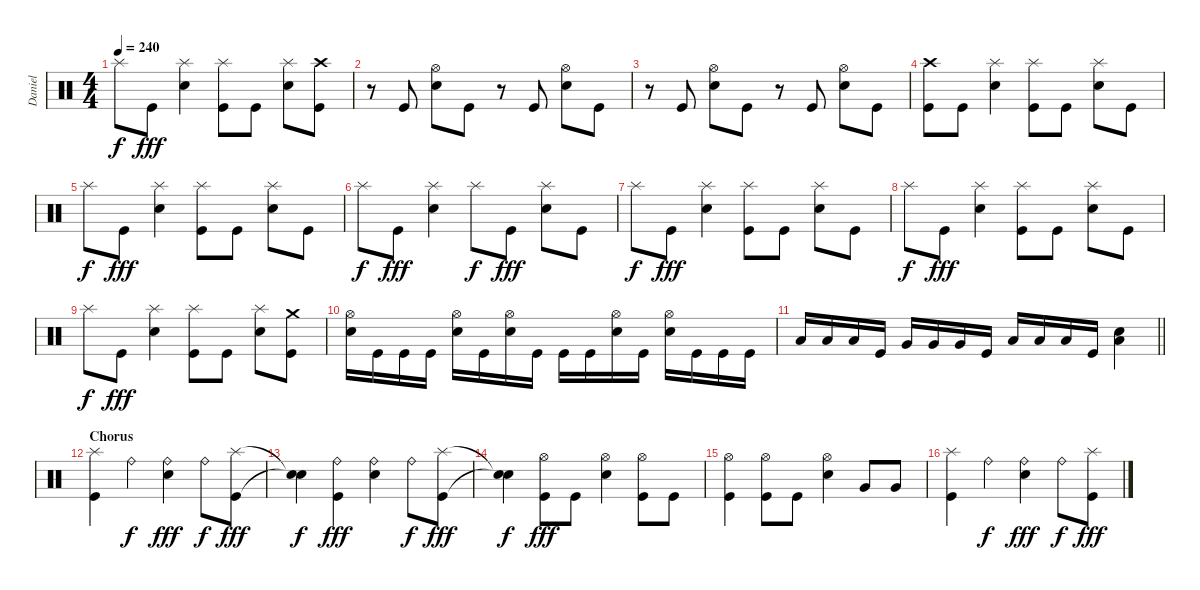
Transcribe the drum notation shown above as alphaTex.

\track ("Daniel" "Daniel") {instrument percussion}
\staff {score}
\articulation defaults
\ts (4 4)
\tempo 240
\clef neutral
\ks c "Splash (hit)".8{dy f} "Kick (hit)".8{dy fff}
("Electric Snare (hit)" "Splash (hit)").4 ("Kick (hit)" "Splash (hit)").8 "Kick (hit)".8 ("Electric Snare (hit)" "Splash (hit)").8 ("Kick (hit)" "Crash high (hit)").8 |
r.8 "Kick (hit)".8 ("Electric Snare (hit)" "Hi-Hat (open)").8 "Kick (hit)".8 r.8 "Kick (hit)".8 ("Electric Snare (hit)" "Hi-Hat (open)").8 "Kick (hit)".8 |
r.8 "Kick (hit)".8 ("Electric Snare (hit)" "Hi-Hat (open)").8 "Kick (hit)".8 r.8 "Kick (hit)".8 ("Electric Snare (hit)" "Hi-Hat (open)").8 "Kick (hit)".8 |
("Kick (hit)" "Crash high (hit)").8 "Kick (hit)".8 ("Electric Snare (hit)" "Splash (hit)").4 ("Kick (hit)" "Splash (hit)").8 "Kick (hit)".8 ("Electric Snare (hit)" "Splash (hit)").8 "Kick (hit)".8 |
"Splash (hit)".8{dy f} "Kick (hit)".8{dy fff} ("Electric Snare (hit)" "Splash (hit)").4 ("Kick (hit)" "Splash (hit)").8 "Kick (hit)".8 ("Electric Snare (hit)" "Splash (hit)").8 "Kick (hit)".8 |
"Splash (hit)".8{dy f} "Kick (hit)".8{dy fff} ("Electric Snare (hit)" "Splash (hit)").4 "Splash (hit)".8{dy f} "Kick (hit)".8{dy fff} ("Electric Snare (hit)" "Splash (hit)").8 "Kick (hit)".8 |
"Splash (hit)".8{dy f} "Kick (hit)".8{dy fff} ("Electric Snare (hit)" "Splash (hit)").4 ("Kick (hit)" "Splash (hit)").8 "Kick (hit)".8 ("Electric Snare (hit)" "Splash (hit)").8 "Kick (hit)".8 |
"Splash (hit)".8{dy f} "Kick (hit)".8{dy fff} ("Electric Snare (hit)" "Splash (hit)").4 ("Kick (hit)" "Splash (hit)").8 "Kick (hit)".8 ("Electric Snare (hit)" "Splash (hit)").8 "Kick (hit)".8 |
"Splash (hit)".8{dy f} "Kick (hit)".8{dy fff} ("Electric Snare (hit)" "Splash (hit)").4 ("Kick (hit)" "Splash (hit)").8 "Kick (hit)".8 ("Electric Snare (hit)" "Splash (hit)").8 ("Kick (hit)" "Crash medium (hit)").8 |
("Electric Snare (hit)" "Hi-Hat (open)").16 "Kick (hit)".16 "Kick (hit)".16 "Kick (hit)".16 ("Electric Snare (hit)" "Hi-Hat (open)").16 "Kick (hit)".16 ("Electric Snare (hit)" "Hi-Hat (open)").16 "Kick (hit)".16 "Kick (hit)".16 "Kick (hit)".16 ("Electric Snare (hit)" "Hi-Hat (open)").16 "Kick (hit)".16 ("Electric Snare (hit)" "Hi-Hat (open)").16 "Kick (hit)".16 "Kick (hit)".16 "Kick (hit)".16 |
\barLineRight lightlight "Low Tom (hit)".16{balance 0} "Low Tom (hit)".16 "Low Tom (hit)".16 "Kick (hit)".16{balance 6} "Very Low Tom (hit)".16{balance 12} "Very Low Tom (hit)".16 "Very Low Tom (hit)".16 "Kick (hit)".16 "Low Floor Tom (hit)".16{balance 16} "Low Floor Tom (hit)".16 "Low Floor Tom (hit)".16 "Kick (hit)".16
("Electric Snare (hit)" "Low Floor Tom (hit)").4{balance 8} |
\section ("" "Chorus")
("Kick (hit)" "Splash (hit)").4 "Ride (bell)".4{dy f} ("Electric Snare (hit)" "Ride (bell)").4{dy fff} "Ride (bell)".8{dy f} ("Kick (hit)" "Splash (hit)").8{dy fff} |
("Snare (hit)"{t} "Snare (hit)"{t}).4{dy f} ("Kick (hit)" "Ride (bell)").4{dy fff} ("Electric Snare (hit)" "Ride (bell)").4 "Ride (bell)".8{dy f} ("Kick (hit)" "Splash (hit)").8{dy fff} |
("Snare (hit)"{t} "Snare (hit)"{t}).4{dy f} ("Kick (hit)" "Hi-Hat (open)").8{dy fff} "Kick (hit)".8 ("Electric Snare (hit)" "Hi-Hat (open)").4 ("Kick (hit)" "Hi-Hat (open)").8 "Kick (hit)".8 |
("Kick (hit)" "Hi-Hat (open)").4 ("Kick (hit)" "Hi-Hat (open)").8 "Kick (hit)".8 ("Electric Snare (hit)" "Hi-Hat (open)").4 "Very Low Tom (hit)".8 "Very Low Tom (hit)".8 |
("Kick (hit)" "Splash (hit)").4 "Ride (bell)".4{dy f} ("Electric Snare (hit)" "Ride (bell)").4{dy fff} "Ride (bell)".8{dy f} ("Kick (hit)" "Splash (hit)").8{dy fff}
